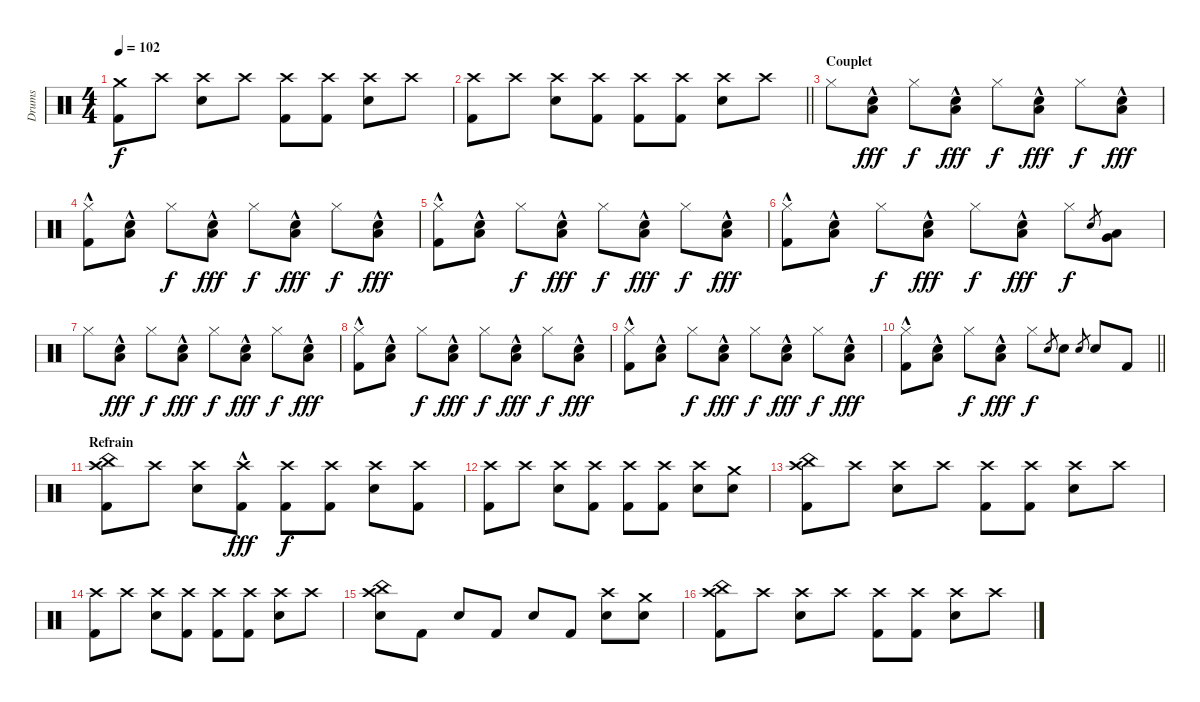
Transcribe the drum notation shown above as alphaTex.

\track ("Drums" "Drums") {instrument percussion}
\staff {score}
\articulation defaults
\ts (4 4)
\tempo 102
\clef neutral
\ks c
("Crash medium (hit)" "Kick (hit) 2").8{dy f} "Crash high (hit)".8 ("Crash high (hit)" "Snare (hit) 2").8 "Crash high (hit)".8 ("Crash high (hit)" "Kick (hit) 2").8 ("Crash high (hit)" "Kick (hit) 2").8 ("Crash high (hit)" "Snare (hit) 2").8 "Crash high (hit)".8 |
\barLineRight lightlight
("Crash high (hit)" "Kick (hit) 2").8 "Crash high (hit)".8 ("Crash high (hit)" "Snare (hit) 2").8 ("Crash high (hit)" "Kick (hit) 2").8 ("Crash high (hit)" "Kick (hit) 2").8 ("Crash high (hit)" "Kick (hit) 2").8 ("Crash high (hit)" "Snare (hit) 2").8 "Crash high (hit)".8 |
\section ("" "Couplet")
"Hi-Hat (closed)".8 ("Low Floor Tom (hit)"{hac} "Snare (hit) 2").8{dy fff} "Hi-Hat (closed)".8{dy f} ("Low Floor Tom (hit)"{hac} "Snare (hit) 2").8{dy fff} "Hi-Hat (closed)".8{dy f} ("Low Floor Tom (hit)"{hac} "Snare (hit) 2").8{dy fff} "Hi-Hat (closed)".8{dy f} ("Low Floor Tom (hit)"{hac} "Snare (hit) 2").8{dy fff} |
("Hi-Hat (closed)" "Kick (hit) 2"{hac}).8 ("Low Floor Tom (hit)"{hac} "Snare (hit) 2").8 "Hi-Hat (closed)".8{dy f} ("Low Floor Tom (hit)"{hac} "Snare (hit) 2").8{dy fff} "Hi-Hat (closed)".8{dy f} ("Low Floor Tom (hit)"{hac} "Snare (hit) 2").8{dy fff} "Hi-Hat (closed)".8{dy f} ("Low Floor Tom (hit)"{hac} "Snare (hit) 2").8{dy fff} |
("Hi-Hat (closed)" "Kick (hit) 2"{hac}).8 ("Low Floor Tom (hit)"{hac} "Snare (hit) 2").8 "Hi-Hat (closed)".8{dy f} ("Low Floor Tom (hit)"{hac} "Snare (hit) 2").8{dy fff} "Hi-Hat (closed)".8{dy f} ("Low Floor Tom (hit)"{hac} "Snare (hit) 2").8{dy fff} "Hi-Hat (closed)".8{dy f} ("Low Floor Tom (hit)"{hac} "Snare (hit) 2").8{dy fff} |
("Hi-Hat (closed)" "Kick (hit) 2"{hac}).8 ("Low Floor Tom (hit)"{hac} "Snare (hit) 2").8 "Hi-Hat (closed)".8{dy f} ("Low Floor Tom (hit)"{hac} "Snare (hit) 2").8{dy fff} "Hi-Hat (closed)".8{dy f} ("Low Floor Tom (hit)"{hac} "Snare (hit) 2").8{dy fff} "Hi-Hat (closed)".8{dy f} "Snare (hit) 2".8{gr} ("Very Low Tom (hit)" "Low Floor Tom (hit)").8 |
"Hi-Hat (closed)".8 ("Low Floor Tom (hit)"{hac} "Snare (hit) 2").8{dy fff} "Hi-Hat (closed)".8{dy f} ("Low Floor Tom (hit)"{hac} "Snare (hit) 2").8{dy fff} "Hi-Hat (closed)".8{dy f} ("Low Floor Tom (hit)"{hac} "Snare (hit) 2").8{dy fff} "Hi-Hat (closed)".8{dy f} ("Low Floor Tom (hit)"{hac} "Snare (hit) 2").8{dy fff} |
("Hi-Hat (closed)" "Kick (hit) 2"{hac}).8 ("Low Floor Tom (hit)"{hac} "Snare (hit) 2").8 "Hi-Hat (closed)".8{dy f} ("Low Floor Tom (hit)"{hac} "Snare (hit) 2").8{dy fff} "Hi-Hat (closed)".8{dy f} ("Low Floor Tom (hit)"{hac} "Snare (hit) 2").8{dy fff} "Hi-Hat (closed)".8{dy f} ("Low Floor Tom (hit)"{hac} "Snare (hit) 2").8{dy fff} |
("Hi-Hat (closed)" "Kick (hit) 2"{hac}).8 ("Low Floor Tom (hit)"{hac} "Snare (hit) 2").8 "Hi-Hat (closed)".8{dy f} ("Low Floor Tom (hit)"{hac} "Snare (hit) 2").8{dy fff} "Hi-Hat (closed)".8{dy f} ("Low Floor Tom (hit)"{hac} "Snare (hit) 2").8{dy fff} "Hi-Hat (closed)".8{dy f} ("Low Floor Tom (hit)"{hac} "Snare (hit) 2").8{dy fff} |
\barLineRight lightlight
("Hi-Hat (closed)" "Kick (hit) 2"{hac}).8 ("Low Floor Tom (hit)"{hac} "Snare (hit) 2").8 "Hi-Hat (closed)".8{dy f} ("Low Floor Tom (hit)"{hac} "Snare (hit) 2").8{dy fff} "Hi-Hat (closed)".8{dy f} "Snare (hit) 2".8{gr} "Snare (hit) 2".8 "Snare (hit) 2".8{gr} "Snare (hit) 2".8 "Kick (hit) 2".8 |
\section ("" "Refrain")
("Crash high (hit)" "China (hit)" "Kick (hit) 2").8 "Crash high (hit)".8 ("Crash high (hit)" "Snare (hit) 2").8 ("Crash high (hit)" "Kick (hit) 2"{hac}).8{dy fff} ("Crash high (hit)" "Kick (hit) 2").8{dy f} ("Crash high (hit)" "Kick (hit) 2").8 ("Crash high (hit)" "Snare (hit) 2").8 ("Crash high (hit)" "Kick (hit) 2").8 |
("Crash high (hit)" "Kick (hit) 2").8 "Crash high (hit)".8 ("Crash high (hit)" "Snare (hit) 2").8 ("Crash high (hit)" "Kick (hit) 2").8 ("Crash high (hit)" "Kick (hit) 2").8 ("Crash high (hit)" "Kick (hit) 2").8 ("Crash high (hit)" "Snare (hit) 2").8 ("Crash medium (hit)" "Snare (hit) 2").8 |
("Crash high (hit)" "China (hit)" "Kick (hit) 2").8 "Crash high (hit)".8 ("Crash high (hit)" "Snare (hit) 2").8 "Crash high (hit)".8 ("Crash high (hit)" "Kick (hit) 2").8 ("Crash high (hit)" "Kick (hit) 2").8 ("Crash high (hit)" "Snare (hit) 2").8 "Crash high (hit)".8 |
("Crash high (hit)" "Kick (hit) 2").8 "Crash high (hit)".8 ("Crash high (hit)" "Snare (hit) 2").8 ("Crash high (hit)" "Kick (hit) 2").8 ("Crash high (hit)" "Kick (hit) 2").8 ("Crash high (hit)" "Kick (hit) 2").8 ("Crash high (hit)" "Snare (hit) 2").8 "Crash high (hit)".8 |
("Crash high (hit)" "China (hit)" "Snare (hit) 2").8 "Kick (hit) 2".8 "Snare (hit) 2".8 "Kick (hit) 2".8 "Snare (hit) 2".8 "Kick (hit) 2".8 ("Crash high (hit)" "Snare (hit) 2").8 ("Crash medium (hit)" "Snare (hit) 2").8 |
("Crash high (hit)" "China (hit)" "Kick (hit) 2").8 "Crash high (hit)".8 ("Crash high (hit)" "Snare (hit) 2").8 "Crash high (hit)".8 ("Crash high (hit)" "Kick (hit) 2").8 ("Crash high (hit)" "Kick (hit) 2").8 ("Crash high (hit)" "Snare (hit) 2").8 "Crash high (hit)".8
